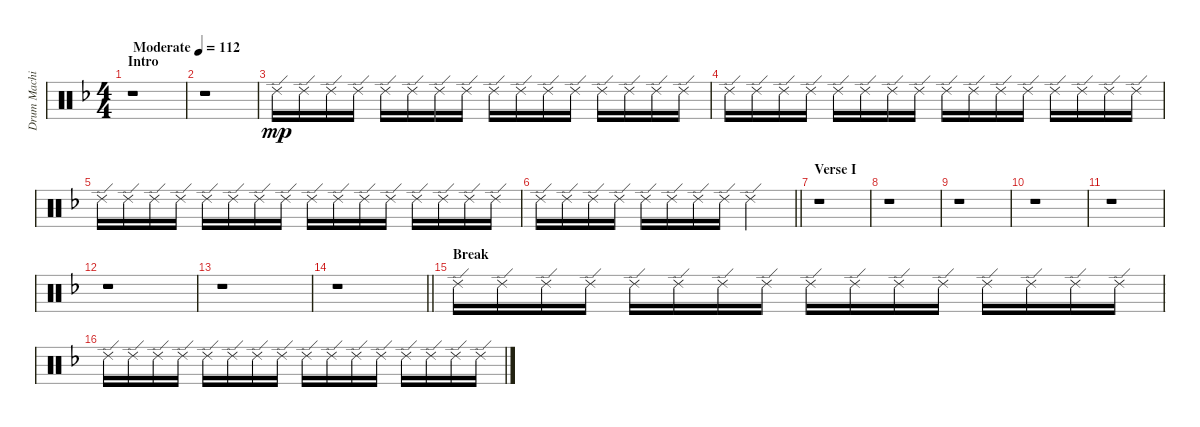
\track ("Drum Machine" "Drum Machi") {instrument percussion}
\staff {score}
\articulation defaults
\ts (4 4)
\section ("" "Intro")
\tempo (112 "Moderate")
\clef neutral
\ks f
r.1{dy mp} |
r.1 |
"Ride (edge) 2".16 "Ride (edge) 2".16 "Ride (edge) 2".16 "Ride (edge) 2".16 "Ride (edge) 2".16 "Ride (edge) 2".16 "Ride (edge) 2".16 "Ride (edge) 2".16 "Ride (edge) 2".16 "Ride (edge) 2".16 "Ride (edge) 2".16 "Ride (edge) 2".16 "Ride (edge) 2".16 "Ride (edge) 2".16 "Ride (edge) 2".16 "Ride (edge) 2".16 |
"Ride (edge) 2".16 "Ride (edge) 2".16 "Ride (edge) 2".16 "Ride (edge) 2".16 "Ride (edge) 2".16 "Ride (edge) 2".16 "Ride (edge) 2".16 "Ride (edge) 2".16 "Ride (edge) 2".16 "Ride (edge) 2".16 "Ride (edge) 2".16 "Ride (edge) 2".16 "Ride (edge) 2".16 "Ride (edge) 2".16 "Ride (edge) 2".16 "Ride (edge) 2".16 |
"Ride (edge) 2".16 "Ride (edge) 2".16 "Ride (edge) 2".16 "Ride (edge) 2".16 "Ride (edge) 2".16 "Ride (edge) 2".16 "Ride (edge) 2".16 "Ride (edge) 2".16 "Ride (edge) 2".16 "Ride (edge) 2".16 "Ride (edge) 2".16 "Ride (edge) 2".16 "Ride (edge) 2".16 "Ride (edge) 2".16 "Ride (edge) 2".16 "Ride (edge) 2".16 |
\barLineRight lightlight "Ride (edge) 2".16 "Ride (edge) 2".16 "Ride (edge) 2".16 "Ride (edge) 2".16 "Ride (edge) 2".16 "Ride (edge) 2".16 "Ride (edge) 2".16 "Ride (edge) 2".16 "Ride (edge) 2".2
|
\section ("" "Verse I")
r.1 |
r.1 |
r.1 |
r.1 |
r.1 |
r.1 |
r.1 |
\barLineRight lightlight
r.1 |
\section ("" "Break")
"Ride (edge) 2".16 "Ride (edge) 2".16 "Ride (edge) 2".16 "Ride (edge) 2".16 "Ride (edge) 2".16 "Ride (edge) 2".16 "Ride (edge) 2".16 "Ride (edge) 2".16 "Ride (edge) 2".16 "Ride (edge) 2".16 "Ride (edge) 2".16 "Ride (edge) 2".16 "Ride (edge) 2".16 "Ride (edge) 2".16 "Ride (edge) 2".16 "Ride (edge) 2".16 |
"Ride (edge) 2".16 "Ride (edge) 2".16 "Ride (edge) 2".16 "Ride (edge) 2".16 "Ride (edge) 2".16 "Ride (edge) 2".16 "Ride (edge) 2".16 "Ride (edge) 2".16 "Ride (edge) 2".16 "Ride (edge) 2".16 "Ride (edge) 2".16 "Ride (edge) 2".16 "Ride (edge) 2".16 "Ride (edge) 2".16 "Ride (edge) 2".16 "Ride (edge) 2".16
